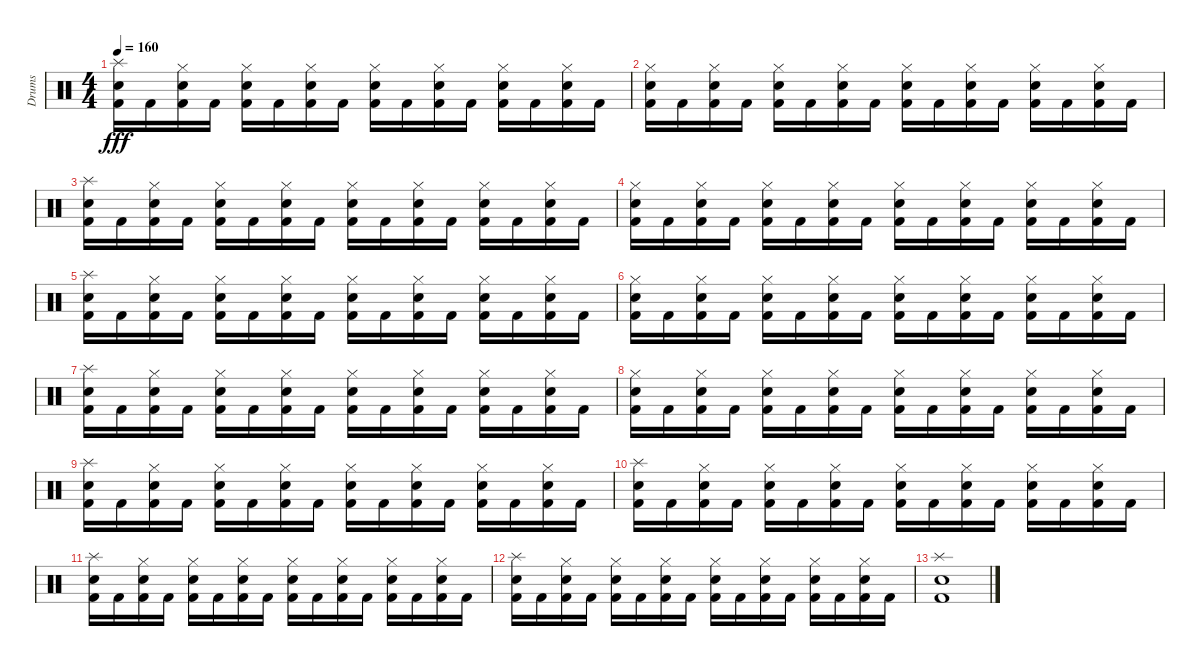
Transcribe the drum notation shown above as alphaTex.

\track ("Drums" "Drums") {instrument percussion}
\staff {score}
\articulation defaults
\ts (4 4)
\tempo 160
\clef neutral
\ks c
("Splash (hit)" "Snare (hit) 2" "Kick (hit) 2").16{dy fff} "Kick (hit) 2".16 ("Hi-Hat (closed)" "Snare (hit) 2" "Kick (hit) 2").16 "Kick (hit) 2".16 ("Hi-Hat (closed)" "Snare (hit) 2" "Kick (hit) 2").16 "Kick (hit) 2".16 ("Hi-Hat (closed)" "Snare (hit) 2" "Kick (hit) 2").16 "Kick (hit) 2".16 ("Hi-Hat (closed)" "Snare (hit) 2" "Kick (hit) 2").16 "Kick (hit) 2".16 ("Hi-Hat (closed)" "Snare (hit) 2" "Kick (hit) 2").16 "Kick (hit) 2".16 ("Hi-Hat (closed)" "Snare (hit) 2" "Kick (hit) 2").16 "Kick (hit) 2".16 ("Hi-Hat (closed)" "Snare (hit) 2" "Kick (hit) 2").16 "Kick (hit) 2".16 |
("Hi-Hat (closed)" "Snare (hit) 2" "Kick (hit) 2").16 "Kick (hit) 2".16 ("Hi-Hat (closed)" "Snare (hit) 2" "Kick (hit) 2").16 "Kick (hit) 2".16 ("Hi-Hat (closed)" "Snare (hit) 2" "Kick (hit) 2").16 "Kick (hit) 2".16 ("Hi-Hat (closed)" "Snare (hit) 2" "Kick (hit) 2").16 "Kick (hit) 2".16 ("Hi-Hat (closed)" "Snare (hit) 2" "Kick (hit) 2").16 "Kick (hit) 2".16 ("Hi-Hat (closed)" "Snare (hit) 2" "Kick (hit) 2").16 "Kick (hit) 2".16 ("Hi-Hat (closed)" "Snare (hit) 2" "Kick (hit) 2").16 "Kick (hit) 2".16 ("Hi-Hat (closed)" "Snare (hit) 2" "Kick (hit) 2").16 "Kick (hit) 2".16 |
("Splash (hit)" "Snare (hit) 2" "Kick (hit) 2").16 "Kick (hit) 2".16 ("Hi-Hat (closed)" "Snare (hit) 2" "Kick (hit) 2").16 "Kick (hit) 2".16 ("Hi-Hat (closed)" "Snare (hit) 2" "Kick (hit) 2").16 "Kick (hit) 2".16 ("Hi-Hat (closed)" "Snare (hit) 2" "Kick (hit) 2").16 "Kick (hit) 2".16 ("Hi-Hat (closed)" "Snare (hit) 2" "Kick (hit) 2").16 "Kick (hit) 2".16 ("Hi-Hat (closed)" "Snare (hit) 2" "Kick (hit) 2").16 "Kick (hit) 2".16 ("Hi-Hat (closed)" "Snare (hit) 2" "Kick (hit) 2").16 "Kick (hit) 2".16 ("Hi-Hat (closed)" "Snare (hit) 2" "Kick (hit) 2").16 "Kick (hit) 2".16 |
("Hi-Hat (closed)" "Snare (hit) 2" "Kick (hit) 2").16 "Kick (hit) 2".16 ("Hi-Hat (closed)" "Snare (hit) 2" "Kick (hit) 2").16 "Kick (hit) 2".16 ("Hi-Hat (closed)" "Snare (hit) 2" "Kick (hit) 2").16 "Kick (hit) 2".16 ("Hi-Hat (closed)" "Snare (hit) 2" "Kick (hit) 2").16 "Kick (hit) 2".16 ("Hi-Hat (closed)" "Snare (hit) 2" "Kick (hit) 2").16 "Kick (hit) 2".16 ("Hi-Hat (closed)" "Snare (hit) 2" "Kick (hit) 2").16 "Kick (hit) 2".16 ("Hi-Hat (closed)" "Snare (hit) 2" "Kick (hit) 2").16 "Kick (hit) 2".16 ("Hi-Hat (closed)" "Snare (hit) 2" "Kick (hit) 2").16 "Kick (hit) 2".16 |
("Splash (hit)" "Snare (hit) 2" "Kick (hit) 2").16 "Kick (hit) 2".16 ("Hi-Hat (closed)" "Snare (hit) 2" "Kick (hit) 2").16 "Kick (hit) 2".16 ("Hi-Hat (closed)" "Snare (hit) 2" "Kick (hit) 2").16 "Kick (hit) 2".16 ("Hi-Hat (closed)" "Snare (hit) 2" "Kick (hit) 2").16 "Kick (hit) 2".16 ("Hi-Hat (closed)" "Snare (hit) 2" "Kick (hit) 2").16 "Kick (hit) 2".16 ("Hi-Hat (closed)" "Snare (hit) 2" "Kick (hit) 2").16 "Kick (hit) 2".16 ("Hi-Hat (closed)" "Snare (hit) 2" "Kick (hit) 2").16 "Kick (hit) 2".16 ("Hi-Hat (closed)" "Snare (hit) 2" "Kick (hit) 2").16 "Kick (hit) 2".16 |
("Hi-Hat (closed)" "Snare (hit) 2" "Kick (hit) 2").16 "Kick (hit) 2".16 ("Hi-Hat (closed)" "Snare (hit) 2" "Kick (hit) 2").16 "Kick (hit) 2".16 ("Hi-Hat (closed)" "Snare (hit) 2" "Kick (hit) 2").16 "Kick (hit) 2".16 ("Hi-Hat (closed)" "Snare (hit) 2" "Kick (hit) 2").16 "Kick (hit) 2".16 ("Hi-Hat (closed)" "Snare (hit) 2" "Kick (hit) 2").16 "Kick (hit) 2".16 ("Hi-Hat (closed)" "Snare (hit) 2" "Kick (hit) 2").16 "Kick (hit) 2".16 ("Hi-Hat (closed)" "Snare (hit) 2" "Kick (hit) 2").16 "Kick (hit) 2".16 ("Hi-Hat (closed)" "Snare (hit) 2" "Kick (hit) 2").16 "Kick (hit) 2".16 |
("Splash (hit)" "Snare (hit) 2" "Kick (hit) 2").16 "Kick (hit) 2".16 ("Hi-Hat (closed)" "Snare (hit) 2" "Kick (hit) 2").16 "Kick (hit) 2".16 ("Hi-Hat (closed)" "Snare (hit) 2" "Kick (hit) 2").16 "Kick (hit) 2".16 ("Hi-Hat (closed)" "Snare (hit) 2" "Kick (hit) 2").16 "Kick (hit) 2".16 ("Hi-Hat (closed)" "Snare (hit) 2" "Kick (hit) 2").16 "Kick (hit) 2".16 ("Hi-Hat (closed)" "Snare (hit) 2" "Kick (hit) 2").16 "Kick (hit) 2".16 ("Hi-Hat (closed)" "Snare (hit) 2" "Kick (hit) 2").16 "Kick (hit) 2".16 ("Hi-Hat (closed)" "Snare (hit) 2" "Kick (hit) 2").16 "Kick (hit) 2".16 |
("Hi-Hat (closed)" "Snare (hit) 2" "Kick (hit) 2").16 "Kick (hit) 2".16 ("Hi-Hat (closed)" "Snare (hit) 2" "Kick (hit) 2").16 "Kick (hit) 2".16 ("Hi-Hat (closed)" "Snare (hit) 2" "Kick (hit) 2").16 "Kick (hit) 2".16 ("Hi-Hat (closed)" "Snare (hit) 2" "Kick (hit) 2").16 "Kick (hit) 2".16 ("Hi-Hat (closed)" "Snare (hit) 2" "Kick (hit) 2").16 "Kick (hit) 2".16 ("Hi-Hat (closed)" "Snare (hit) 2" "Kick (hit) 2").16 "Kick (hit) 2".16 ("Hi-Hat (closed)" "Snare (hit) 2" "Kick (hit) 2").16 "Kick (hit) 2".16 ("Hi-Hat (closed)" "Snare (hit) 2" "Kick (hit) 2").16 "Kick (hit) 2".16 |
("Splash (hit)" "Snare (hit) 2" "Kick (hit) 2").16 "Kick (hit) 2".16 ("Hi-Hat (closed)" "Snare (hit) 2" "Kick (hit) 2").16 "Kick (hit) 2".16 ("Hi-Hat (closed)" "Snare (hit) 2" "Kick (hit) 2").16 "Kick (hit) 2".16 ("Hi-Hat (closed)" "Snare (hit) 2" "Kick (hit) 2").16 "Kick (hit) 2".16 ("Hi-Hat (closed)" "Snare (hit) 2" "Kick (hit) 2").16 "Kick (hit) 2".16 ("Hi-Hat (closed)" "Snare (hit) 2" "Kick (hit) 2").16 "Kick (hit) 2".16 ("Hi-Hat (closed)" "Snare (hit) 2" "Kick (hit) 2").16 "Kick (hit) 2".16 ("Hi-Hat (closed)" "Snare (hit) 2" "Kick (hit) 2").16 "Kick (hit) 2".16 |
("Splash (hit)" "Snare (hit) 2" "Kick (hit) 2").16 "Kick (hit) 2".16 ("Hi-Hat (closed)" "Snare (hit) 2" "Kick (hit) 2").16 "Kick (hit) 2".16 ("Hi-Hat (closed)" "Snare (hit) 2" "Kick (hit) 2").16 "Kick (hit) 2".16 ("Hi-Hat (closed)" "Snare (hit) 2" "Kick (hit) 2").16 "Kick (hit) 2".16 ("Hi-Hat (closed)" "Snare (hit) 2" "Kick (hit) 2").16 "Kick (hit) 2".16 ("Hi-Hat (closed)" "Snare (hit) 2" "Kick (hit) 2").16 "Kick (hit) 2".16 ("Hi-Hat (closed)" "Snare (hit) 2" "Kick (hit) 2").16 "Kick (hit) 2".16 ("Hi-Hat (closed)" "Snare (hit) 2" "Kick (hit) 2").16 "Kick (hit) 2".16 |
("Splash (hit)" "Snare (hit) 2" "Kick (hit) 2").16 "Kick (hit) 2".16 ("Hi-Hat (closed)" "Snare (hit) 2" "Kick (hit) 2").16 "Kick (hit) 2".16 ("Hi-Hat (closed)" "Snare (hit) 2" "Kick (hit) 2").16 "Kick (hit) 2".16 ("Hi-Hat (closed)" "Snare (hit) 2" "Kick (hit) 2").16 "Kick (hit) 2".16 ("Hi-Hat (closed)" "Snare (hit) 2" "Kick (hit) 2").16 "Kick (hit) 2".16 ("Hi-Hat (closed)" "Snare (hit) 2" "Kick (hit) 2").16 "Kick (hit) 2".16 ("Hi-Hat (closed)" "Snare (hit) 2" "Kick (hit) 2").16 "Kick (hit) 2".16 ("Hi-Hat (closed)" "Snare (hit) 2" "Kick (hit) 2").16 "Kick (hit) 2".16 |
("Splash (hit)" "Snare (hit) 2" "Kick (hit) 2").16 "Kick (hit) 2".16 ("Hi-Hat (closed)" "Snare (hit) 2" "Kick (hit) 2").16 "Kick (hit) 2".16 ("Hi-Hat (closed)" "Snare (hit) 2" "Kick (hit) 2").16 "Kick (hit) 2".16 ("Hi-Hat (closed)" "Snare (hit) 2" "Kick (hit) 2").16 "Kick (hit) 2".16 ("Hi-Hat (closed)" "Snare (hit) 2" "Kick (hit) 2").16 "Kick (hit) 2".16 ("Hi-Hat (closed)" "Snare (hit) 2" "Kick (hit) 2").16 "Kick (hit) 2".16 ("Hi-Hat (closed)" "Snare (hit) 2" "Kick (hit) 2").16 "Kick (hit) 2".16 ("Hi-Hat (closed)" "Snare (hit) 2" "Kick (hit) 2").16 "Kick (hit) 2".16 |
("Splash (hit)" "Snare (hit) 2" "Kick (hit) 2").1
